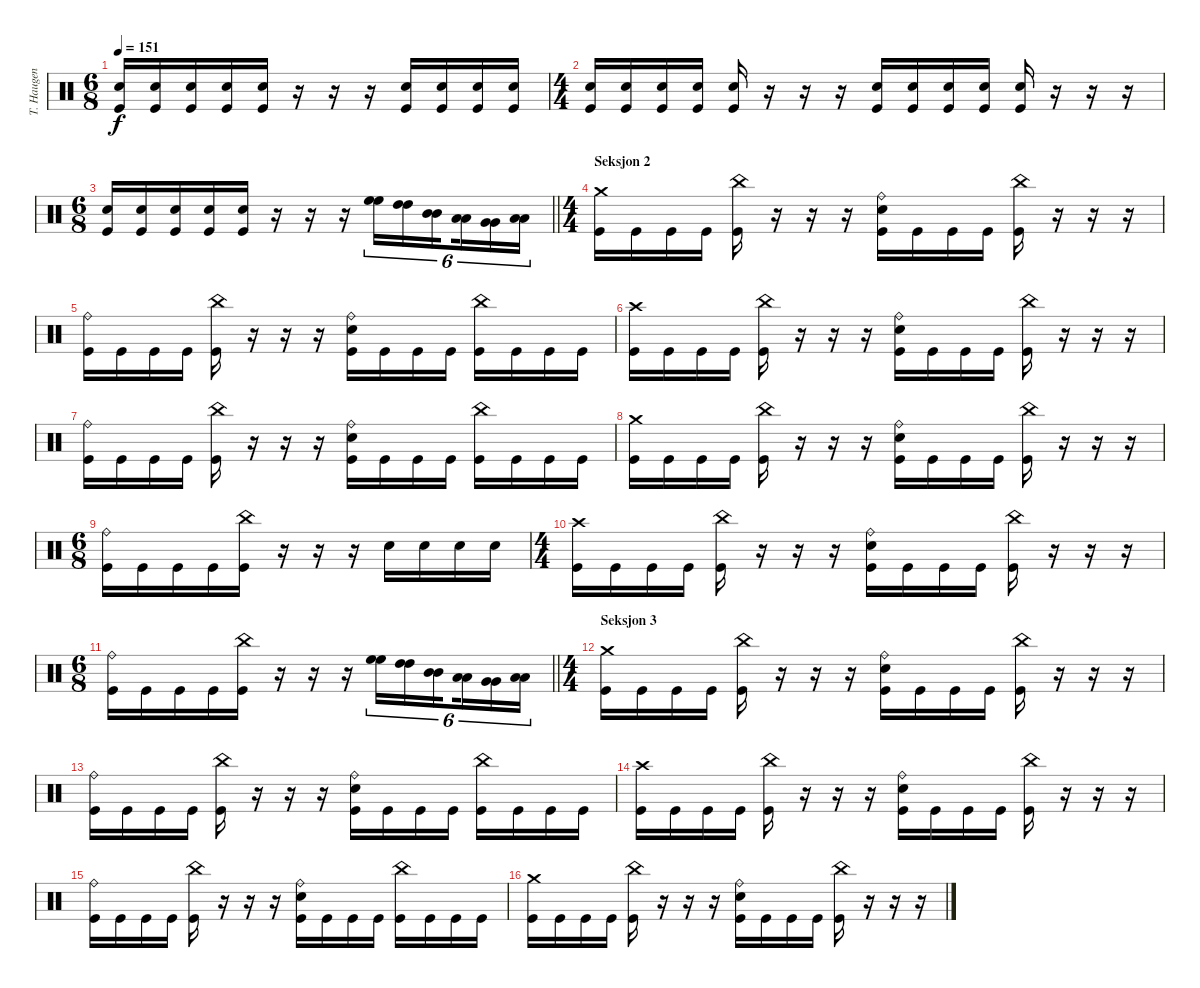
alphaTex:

\track ("T. Haugen" "T. Haugen") {instrument percussion}
\staff {score}
\articulation defaults
\ts (6 8)
\tempo 151
\clef neutral
\ks c
("Electric Snare (hit)" "Kick (hit)").16{dy f} ("Electric Snare (hit)" "Kick (hit)").16 ("Electric Snare (hit)" "Kick (hit)").16 ("Electric Snare (hit)" "Kick (hit)").16 ("Electric Snare (hit)" "Kick (hit)").16 r.16 r.16 r.16 ("Electric Snare (hit)" "Kick (hit)").16 ("Electric Snare (hit)" "Kick (hit)").16 ("Electric Snare (hit)" "Kick (hit)").16 ("Electric Snare (hit)" "Kick (hit)").16 |
\ts (4 4)
("Electric Snare (hit)" "Kick (hit)").16 ("Electric Snare (hit)" "Kick (hit)").16 ("Electric Snare (hit)" "Kick (hit)").16 ("Electric Snare (hit)" "Kick (hit)").16 ("Electric Snare (hit)" "Kick (hit)").16 r.16 r.16 r.16 ("Electric Snare (hit)" "Kick (hit)").16 ("Electric Snare (hit)" "Kick (hit)").16 ("Electric Snare (hit)" "Kick (hit)").16 ("Electric Snare (hit)" "Kick (hit)").16 ("Electric Snare (hit)" "Kick (hit)").16 r.16 r.16 r.16 |
\ts (6 8)
\barLineRight lightlight
("Electric Snare (hit)" "Kick (hit)").16 ("Electric Snare (hit)" "Kick (hit)").16 ("Electric Snare (hit)" "Kick (hit)").16 ("Electric Snare (hit)" "Kick (hit)").16 ("Electric Snare (hit)" "Kick (hit)").16 r.16 r.16 r.16 ("High Floor Tom (hit)" "High Floor Tom (hit)").16{tu (6 4)} ("High Tom (hit)" "High Tom (hit)").16{tu (6 4)} ("Mid Tom (hit)" "Mid Tom (hit)").16{tu (6 4) beam splitsecondary} ("Low Tom (hit)" "Low Tom (hit)").16{tu (6 4)} ("Very Low Tom (hit)" "Very Low Tom (hit)").16{tu (6 4)} ("Low Floor Tom (hit)" "Low Floor Tom (hit)").16{tu (6 4)} |
\ts (4 4)
\section ("" "Seksjon 2")
("Crash medium (hit)" "Kick (hit)").16 "Kick (hit)".16 "Kick (hit)".16 "Kick (hit)".16 ("China (hit)" "Kick (hit)").16 r.16 r.16 r.16 ("Ride (bell)" "Electric Snare (hit)" "Kick (hit)").16 "Kick (hit)".16 "Kick (hit)".16 "Kick (hit)".16 ("China (hit)" "Kick (hit)").16 r.16 r.16 r.16 |
("Ride (bell)" "Kick (hit)").16 "Kick (hit)".16 "Kick (hit)".16 "Kick (hit)".16 ("China (hit)" "Kick (hit)").16 r.16 r.16 r.16 ("Ride (bell)" "Electric Snare (hit)" "Kick (hit)").16 "Kick (hit)".16 "Kick (hit)".16 "Kick (hit)".16 ("China (hit)" "Kick (hit)").16 "Kick (hit)".16 "Kick (hit)".16 "Kick (hit)".16 |
("Crash high (hit)" "Kick (hit)").16 "Kick (hit)".16 "Kick (hit)".16 "Kick (hit)".16 ("China (hit)" "Kick (hit)").16 r.16 r.16 r.16 ("Ride (bell)" "Electric Snare (hit)" "Kick (hit)").16 "Kick (hit)".16 "Kick (hit)".16 "Kick (hit)".16 ("China (hit)" "Kick (hit)").16 r.16 r.16 r.16 |
("Ride (bell)" "Kick (hit)").16 "Kick (hit)".16 "Kick (hit)".16 "Kick (hit)".16 ("China (hit)" "Kick (hit)").16 r.16 r.16 r.16 ("Ride (bell)" "Electric Snare (hit)" "Kick (hit)").16 "Kick (hit)".16 "Kick (hit)".16 "Kick (hit)".16 ("China (hit)" "Kick (hit)").16 "Kick (hit)".16 "Kick (hit)".16 "Kick (hit)".16 |
("Crash medium (hit)" "Kick (hit)").16 "Kick (hit)".16 "Kick (hit)".16 "Kick (hit)".16 ("China (hit)" "Kick (hit)").16 r.16 r.16 r.16 ("Ride (bell)" "Electric Snare (hit)" "Kick (hit)").16 "Kick (hit)".16 "Kick (hit)".16 "Kick (hit)".16 ("China (hit)" "Kick (hit)").16 r.16 r.16 r.16 |
\ts (6 8)
("Ride (bell)" "Kick (hit)").16 "Kick (hit)".16 "Kick (hit)".16 "Kick (hit)".16 ("China (hit)" "Kick (hit)").16 r.16 r.16 r.16 "Electric Snare (hit)".16 "Electric Snare (hit)".16 "Electric Snare (hit)".16 "Electric Snare (hit)".16 |
\ts (4 4)
("Crash high (hit)" "Kick (hit)").16 "Kick (hit)".16 "Kick (hit)".16 "Kick (hit)".16 ("China (hit)" "Kick (hit)").16 r.16 r.16 r.16 ("Ride (bell)" "Electric Snare (hit)" "Kick (hit)").16 "Kick (hit)".16 "Kick (hit)".16 "Kick (hit)".16 ("China (hit)" "Kick (hit)").16 r.16 r.16 r.16 |
\ts (6 8)
\barLineRight lightlight
("Ride (bell)" "Kick (hit)").16 "Kick (hit)".16 "Kick (hit)".16 "Kick (hit)".16 ("China (hit)" "Kick (hit)").16 r.16 r.16 r.16 ("High Floor Tom (hit)" "High Floor Tom (hit)").16{tu (6 4)} ("High Tom (hit)" "High Tom (hit)").16{tu (6 4)} ("Mid Tom (hit)" "Mid Tom (hit)").16{tu (6 4) beam splitsecondary} ("Low Tom (hit)" "Low Tom (hit)").16{tu (6 4)} ("Very Low Tom (hit)" "Very Low Tom (hit)").16{tu (6 4)} ("Low Floor Tom (hit)" "Low Floor Tom (hit)").16{tu (6 4)} |
\ts (4 4)
\section ("" "Seksjon 3")
("Crash medium (hit)" "Kick (hit)").16 "Kick (hit)".16 "Kick (hit)".16 "Kick (hit)".16 ("China (hit)" "Kick (hit)").16 r.16 r.16 r.16 ("Ride (bell)" "Electric Snare (hit)" "Kick (hit)").16 "Kick (hit)".16 "Kick (hit)".16 "Kick (hit)".16 ("China (hit)" "Kick (hit)").16 r.16 r.16 r.16 |
("Ride (bell)" "Kick (hit)").16 "Kick (hit)".16 "Kick (hit)".16 "Kick (hit)".16 ("China (hit)" "Kick (hit)").16 r.16 r.16 r.16 ("Ride (bell)" "Electric Snare (hit)" "Kick (hit)").16 "Kick (hit)".16 "Kick (hit)".16 "Kick (hit)".16 ("China (hit)" "Kick (hit)").16 "Kick (hit)".16 "Kick (hit)".16 "Kick (hit)".16 |
("Crash high (hit)" "Kick (hit)").16 "Kick (hit)".16 "Kick (hit)".16 "Kick (hit)".16 ("China (hit)" "Kick (hit)").16 r.16 r.16 r.16 ("Ride (bell)" "Electric Snare (hit)" "Kick (hit)").16 "Kick (hit)".16 "Kick (hit)".16 "Kick (hit)".16 ("China (hit)" "Kick (hit)").16 r.16 r.16 r.16 |
("Ride (bell)" "Kick (hit)").16 "Kick (hit)".16 "Kick (hit)".16 "Kick (hit)".16 ("China (hit)" "Kick (hit)").16 r.16 r.16 r.16 ("Ride (bell)" "Electric Snare (hit)" "Kick (hit)").16 "Kick (hit)".16 "Kick (hit)".16 "Kick (hit)".16 ("China (hit)" "Kick (hit)").16 "Kick (hit)".16 "Kick (hit)".16 "Kick (hit)".16 |
("Crash medium (hit)" "Kick (hit)").16 "Kick (hit)".16 "Kick (hit)".16 "Kick (hit)".16 ("China (hit)" "Kick (hit)").16 r.16 r.16 r.16 ("Ride (bell)" "Electric Snare (hit)" "Kick (hit)").16 "Kick (hit)".16 "Kick (hit)".16 "Kick (hit)".16 ("China (hit)" "Kick (hit)").16 r.16 r.16 r.16
